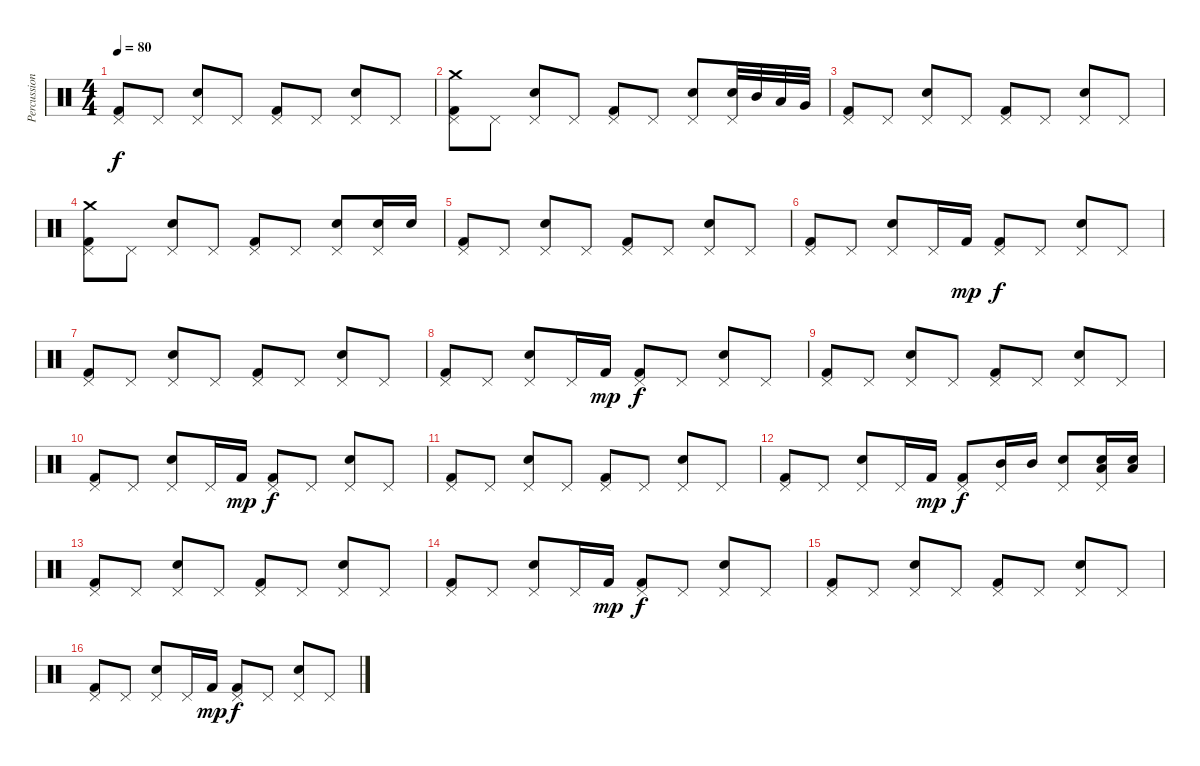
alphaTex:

\track ("Percussion" "Percussion") {instrument percussion}
\staff {score}
\articulation defaults
\ts (4 4)
\tempo 80
\clef neutral
\ks c
("Kick (hit) 2" "Pedal Hi-Hat (hit)").8{dy f} "Pedal Hi-Hat (hit)".8 ("Pedal Hi-Hat (hit)" "Electric Snare (hit)").8 "Pedal Hi-Hat (hit)".8 ("Pedal Hi-Hat (hit)" "Kick (hit) 2").8 "Pedal Hi-Hat (hit)".8 ("Pedal Hi-Hat (hit)" "Electric Snare (hit)").8 "Pedal Hi-Hat (hit)".8 |
("Crash medium (hit)" "Kick (hit) 2" "Pedal Hi-Hat (hit)").8 "Pedal Hi-Hat (hit)".8 ("Electric Snare (hit)" "Pedal Hi-Hat (hit)").8 "Pedal Hi-Hat (hit)".8 ("Pedal Hi-Hat (hit)" "Kick (hit) 2").8 "Pedal Hi-Hat (hit)".8 ("Electric Snare (hit)" "Pedal Hi-Hat (hit)").8 ("Electric Snare (hit)" "Pedal Hi-Hat (hit)").32 "Mid Tom (hit)".32 "Low Tom (hit)".32 "Very Low Tom (hit)".32 |
("Pedal Hi-Hat (hit)" "Kick (hit) 2").8 "Pedal Hi-Hat (hit)".8 ("Electric Snare (hit)" "Pedal Hi-Hat (hit)").8 "Pedal Hi-Hat (hit)".8 ("Kick (hit) 2" "Pedal Hi-Hat (hit)").8 "Pedal Hi-Hat (hit)".8 ("Pedal Hi-Hat (hit)" "Electric Snare (hit)").8 "Pedal Hi-Hat (hit)".8 |
("Crash medium (hit)" "Kick (hit) 2" "Pedal Hi-Hat (hit)").8 "Pedal Hi-Hat (hit)".8 ("Electric Snare (hit)" "Pedal Hi-Hat (hit)").8 "Pedal Hi-Hat (hit)".8 ("Pedal Hi-Hat (hit)" "Kick (hit) 2").8 "Pedal Hi-Hat (hit)".8 ("Electric Snare (hit)" "Pedal Hi-Hat (hit)").8 ("Electric Snare (hit)" "Pedal Hi-Hat (hit)").16 "Electric Snare (hit)".16 |
("Pedal Hi-Hat (hit)" "Kick (hit) 2").8 "Pedal Hi-Hat (hit)".8 ("Pedal Hi-Hat (hit)" "Electric Snare (hit)").8 "Pedal Hi-Hat (hit)".8 ("Kick (hit) 2" "Pedal Hi-Hat (hit)").8 "Pedal Hi-Hat (hit)".8 ("Electric Snare (hit)" "Pedal Hi-Hat (hit)").8 "Pedal Hi-Hat (hit)".8 |
("Pedal Hi-Hat (hit)" "Kick (hit) 2").8 "Pedal Hi-Hat (hit)".8 ("Pedal Hi-Hat (hit)" "Electric Snare (hit)").8 "Pedal Hi-Hat (hit)".16 "Kick (hit) 2".16{dy mp} ("Kick (hit) 2" "Pedal Hi-Hat (hit)").8{dy f} "Pedal Hi-Hat (hit)".8 ("Electric Snare (hit)" "Pedal Hi-Hat (hit)").8 "Pedal Hi-Hat (hit)".8 |
("Pedal Hi-Hat (hit)" "Kick (hit) 2").8 "Pedal Hi-Hat (hit)".8 ("Pedal Hi-Hat (hit)" "Electric Snare (hit)").8 "Pedal Hi-Hat (hit)".8 ("Kick (hit) 2" "Pedal Hi-Hat (hit)").8 "Pedal Hi-Hat (hit)".8 ("Electric Snare (hit)" "Pedal Hi-Hat (hit)").8 "Pedal Hi-Hat (hit)".8 |
("Pedal Hi-Hat (hit)" "Kick (hit) 2").8 "Pedal Hi-Hat (hit)".8 ("Pedal Hi-Hat (hit)" "Electric Snare (hit)").8 "Pedal Hi-Hat (hit)".16 "Kick (hit) 2".16{dy mp} ("Kick (hit) 2" "Pedal Hi-Hat (hit)").8{dy f} "Pedal Hi-Hat (hit)".8 ("Electric Snare (hit)" "Pedal Hi-Hat (hit)").8 "Pedal Hi-Hat (hit)".8 |
("Pedal Hi-Hat (hit)" "Kick (hit) 2").8 "Pedal Hi-Hat (hit)".8 ("Pedal Hi-Hat (hit)" "Electric Snare (hit)").8 "Pedal Hi-Hat (hit)".8 ("Kick (hit) 2" "Pedal Hi-Hat (hit)").8 "Pedal Hi-Hat (hit)".8 ("Electric Snare (hit)" "Pedal Hi-Hat (hit)").8 "Pedal Hi-Hat (hit)".8 |
("Pedal Hi-Hat (hit)" "Kick (hit) 2").8 "Pedal Hi-Hat (hit)".8 ("Pedal Hi-Hat (hit)" "Electric Snare (hit)").8 "Pedal Hi-Hat (hit)".16 "Kick (hit) 2".16{dy mp} ("Kick (hit) 2" "Pedal Hi-Hat (hit)").8{dy f} "Pedal Hi-Hat (hit)".8 ("Electric Snare (hit)" "Pedal Hi-Hat (hit)").8 "Pedal Hi-Hat (hit)".8 |
("Pedal Hi-Hat (hit)" "Kick (hit) 2").8 "Pedal Hi-Hat (hit)".8 ("Pedal Hi-Hat (hit)" "Electric Snare (hit)").8 "Pedal Hi-Hat (hit)".8 ("Kick (hit) 2" "Pedal Hi-Hat (hit)").8 "Pedal Hi-Hat (hit)".8 ("Electric Snare (hit)" "Pedal Hi-Hat (hit)").8 "Pedal Hi-Hat (hit)".8 |
("Pedal Hi-Hat (hit)" "Kick (hit) 2").8 "Pedal Hi-Hat (hit)".8 ("Pedal Hi-Hat (hit)" "Electric Snare (hit)").8 "Pedal Hi-Hat (hit)".16 "Kick (hit) 2".16{dy mp} ("Pedal Hi-Hat (hit)" "Kick (hit) 2").8{dy f} ("Pedal Hi-Hat (hit)" "Mid Tom (hit)").16 "Mid Tom (hit)".16 ("Electric Snare (hit)" "Pedal Hi-Hat (hit)").8 ("Pedal Hi-Hat (hit)" "Electric Snare (hit)" "Low Tom (hit)").16 ("Electric Snare (hit)" "Low Tom (hit)").16 |
("Pedal Hi-Hat (hit)" "Kick (hit) 2").8 "Pedal Hi-Hat (hit)".8 ("Pedal Hi-Hat (hit)" "Electric Snare (hit)").8 "Pedal Hi-Hat (hit)".8 ("Kick (hit) 2" "Pedal Hi-Hat (hit)").8 "Pedal Hi-Hat (hit)".8 ("Electric Snare (hit)" "Pedal Hi-Hat (hit)").8 "Pedal Hi-Hat (hit)".8 |
("Pedal Hi-Hat (hit)" "Kick (hit) 2").8 "Pedal Hi-Hat (hit)".8 ("Pedal Hi-Hat (hit)" "Electric Snare (hit)").8 "Pedal Hi-Hat (hit)".16 "Kick (hit) 2".16{dy mp} ("Kick (hit) 2" "Pedal Hi-Hat (hit)").8{dy f} "Pedal Hi-Hat (hit)".8 ("Electric Snare (hit)" "Pedal Hi-Hat (hit)").8 "Pedal Hi-Hat (hit)".8 |
("Pedal Hi-Hat (hit)" "Kick (hit) 2").8 "Pedal Hi-Hat (hit)".8 ("Pedal Hi-Hat (hit)" "Electric Snare (hit)").8 "Pedal Hi-Hat (hit)".8 ("Kick (hit) 2" "Pedal Hi-Hat (hit)").8 "Pedal Hi-Hat (hit)".8 ("Electric Snare (hit)" "Pedal Hi-Hat (hit)").8 "Pedal Hi-Hat (hit)".8 |
("Pedal Hi-Hat (hit)" "Kick (hit) 2").8 "Pedal Hi-Hat (hit)".8 ("Pedal Hi-Hat (hit)" "Electric Snare (hit)").8 "Pedal Hi-Hat (hit)".16 "Kick (hit) 2".16{dy mp} ("Kick (hit) 2" "Pedal Hi-Hat (hit)").8{dy f} "Pedal Hi-Hat (hit)".8 ("Electric Snare (hit)" "Pedal Hi-Hat (hit)").8 "Pedal Hi-Hat (hit)".8
